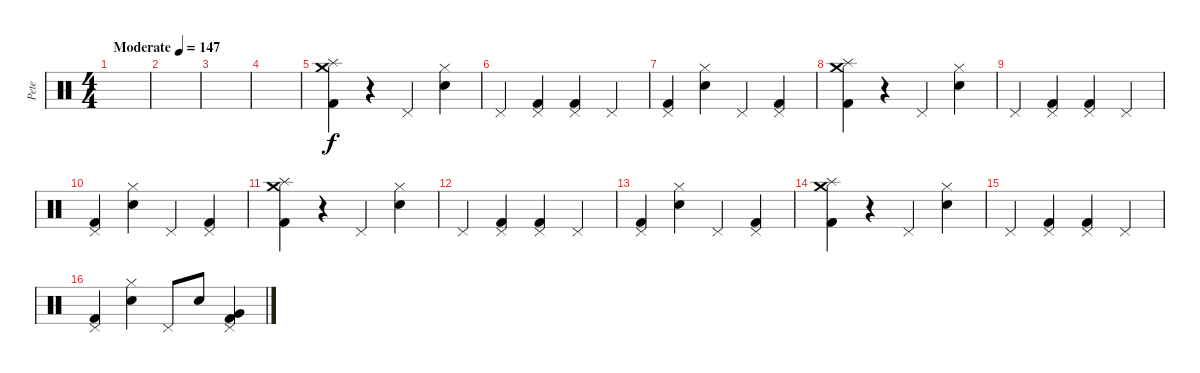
\track ("Pete" "Pete") {instrument percussion}
\staff {score}
\articulation defaults
\ts (4 4)
\tempo (147 "Moderate")
\clef neutral
\ks c
|
|
|
|
("Crash medium (hit)" "Splash (hit)" "Kick (hit) 2").4 r.4 "Pedal Hi-Hat (hit)".4 ("Hi-Hat (closed)" "Electric Snare (hit)").4 |
"Pedal Hi-Hat (hit)".4 ("Pedal Hi-Hat (hit)" "Kick (hit) 2").4 ("Pedal Hi-Hat (hit)" "Kick (hit) 2").4 "Pedal Hi-Hat (hit)".4 |
("Pedal Hi-Hat (hit)" "Kick (hit) 2").4 ("Hi-Hat (closed)" "Electric Snare (hit)").4 "Pedal Hi-Hat (hit)".4 ("Pedal Hi-Hat (hit)" "Kick (hit) 2").4 |
("Crash medium (hit)" "Splash (hit)" "Kick (hit) 2").4 r.4 "Pedal Hi-Hat (hit)".4 ("Hi-Hat (closed)" "Electric Snare (hit)").4 |
"Pedal Hi-Hat (hit)".4 ("Pedal Hi-Hat (hit)" "Kick (hit) 2").4 ("Pedal Hi-Hat (hit)" "Kick (hit) 2").4 "Pedal Hi-Hat (hit)".4 |
("Pedal Hi-Hat (hit)" "Kick (hit) 2").4 ("Hi-Hat (closed)" "Electric Snare (hit)").4 "Pedal Hi-Hat (hit)".4 ("Pedal Hi-Hat (hit)" "Kick (hit) 2").4 |
("Crash medium (hit)" "Splash (hit)" "Kick (hit) 2").4 r.4 "Pedal Hi-Hat (hit)".4 ("Hi-Hat (closed)" "Electric Snare (hit)").4 |
"Pedal Hi-Hat (hit)".4 ("Pedal Hi-Hat (hit)" "Kick (hit) 2").4 ("Pedal Hi-Hat (hit)" "Kick (hit) 2").4 "Pedal Hi-Hat (hit)".4 |
("Pedal Hi-Hat (hit)" "Kick (hit) 2").4 ("Hi-Hat (closed)" "Electric Snare (hit)").4 "Pedal Hi-Hat (hit)".4 ("Pedal Hi-Hat (hit)" "Kick (hit) 2").4 |
("Crash medium (hit)" "Splash (hit)" "Kick (hit) 2").4 r.4 "Pedal Hi-Hat (hit)".4 ("Hi-Hat (closed)" "Electric Snare (hit)").4 |
"Pedal Hi-Hat (hit)".4 ("Pedal Hi-Hat (hit)" "Kick (hit) 2").4 ("Pedal Hi-Hat (hit)" "Kick (hit) 2").4 "Pedal Hi-Hat (hit)".4 |
("Pedal Hi-Hat (hit)" "Kick (hit) 2").4 ("Hi-Hat (closed)" "Electric Snare (hit)").4 "Pedal Hi-Hat (hit)".8 "Electric Snare (hit)".8 ("Pedal Hi-Hat (hit)" "Very Low Tom (hit)" "Kick (hit) 2").4
